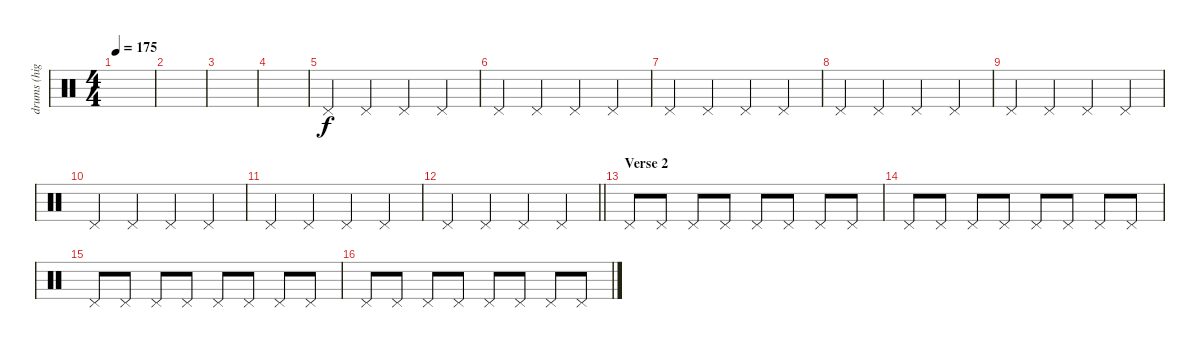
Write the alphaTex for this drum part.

\track ("drums (highhat)" "drums (hig") {instrument percussion}
\staff {score}
\articulation defaults
\ts (4 4)
\tempo 175
\clef neutral
\ks c
|
|
|
|
"Pedal Hi-Hat (hit)".4 "Pedal Hi-Hat (hit)".4 "Pedal Hi-Hat (hit)".4 "Pedal Hi-Hat (hit)".4 |
"Pedal Hi-Hat (hit)".4 "Pedal Hi-Hat (hit)".4 "Pedal Hi-Hat (hit)".4 "Pedal Hi-Hat (hit)".4 |
"Pedal Hi-Hat (hit)".4 "Pedal Hi-Hat (hit)".4 "Pedal Hi-Hat (hit)".4 "Pedal Hi-Hat (hit)".4 |
"Pedal Hi-Hat (hit)".4 "Pedal Hi-Hat (hit)".4 "Pedal Hi-Hat (hit)".4 "Pedal Hi-Hat (hit)".4 |
"Pedal Hi-Hat (hit)".4 "Pedal Hi-Hat (hit)".4 "Pedal Hi-Hat (hit)".4 "Pedal Hi-Hat (hit)".4 |
"Pedal Hi-Hat (hit)".4 "Pedal Hi-Hat (hit)".4 "Pedal Hi-Hat (hit)".4 "Pedal Hi-Hat (hit)".4 |
"Pedal Hi-Hat (hit)".4 "Pedal Hi-Hat (hit)".4 "Pedal Hi-Hat (hit)".4 "Pedal Hi-Hat (hit)".4 |
\barLineRight lightlight "Pedal Hi-Hat (hit)".4 "Pedal Hi-Hat (hit)".4 "Pedal Hi-Hat (hit)".4 "Pedal Hi-Hat (hit)".4
|
\section ("" "Verse 2")
"Pedal Hi-Hat (hit)".8 "Pedal Hi-Hat (hit)".8 "Pedal Hi-Hat (hit)".8 "Pedal Hi-Hat (hit)".8 "Pedal Hi-Hat (hit)".8 "Pedal Hi-Hat (hit)".8 "Pedal Hi-Hat (hit)".8 "Pedal Hi-Hat (hit)".8 |
"Pedal Hi-Hat (hit)".8 "Pedal Hi-Hat (hit)".8 "Pedal Hi-Hat (hit)".8 "Pedal Hi-Hat (hit)".8 "Pedal Hi-Hat (hit)".8 "Pedal Hi-Hat (hit)".8 "Pedal Hi-Hat (hit)".8 "Pedal Hi-Hat (hit)".8 |
"Pedal Hi-Hat (hit)".8 "Pedal Hi-Hat (hit)".8 "Pedal Hi-Hat (hit)".8 "Pedal Hi-Hat (hit)".8 "Pedal Hi-Hat (hit)".8 "Pedal Hi-Hat (hit)".8 "Pedal Hi-Hat (hit)".8 "Pedal Hi-Hat (hit)".8 |
"Pedal Hi-Hat (hit)".8 "Pedal Hi-Hat (hit)".8 "Pedal Hi-Hat (hit)".8 "Pedal Hi-Hat (hit)".8 "Pedal Hi-Hat (hit)".8 "Pedal Hi-Hat (hit)".8 "Pedal Hi-Hat (hit)".8 "Pedal Hi-Hat (hit)".8
